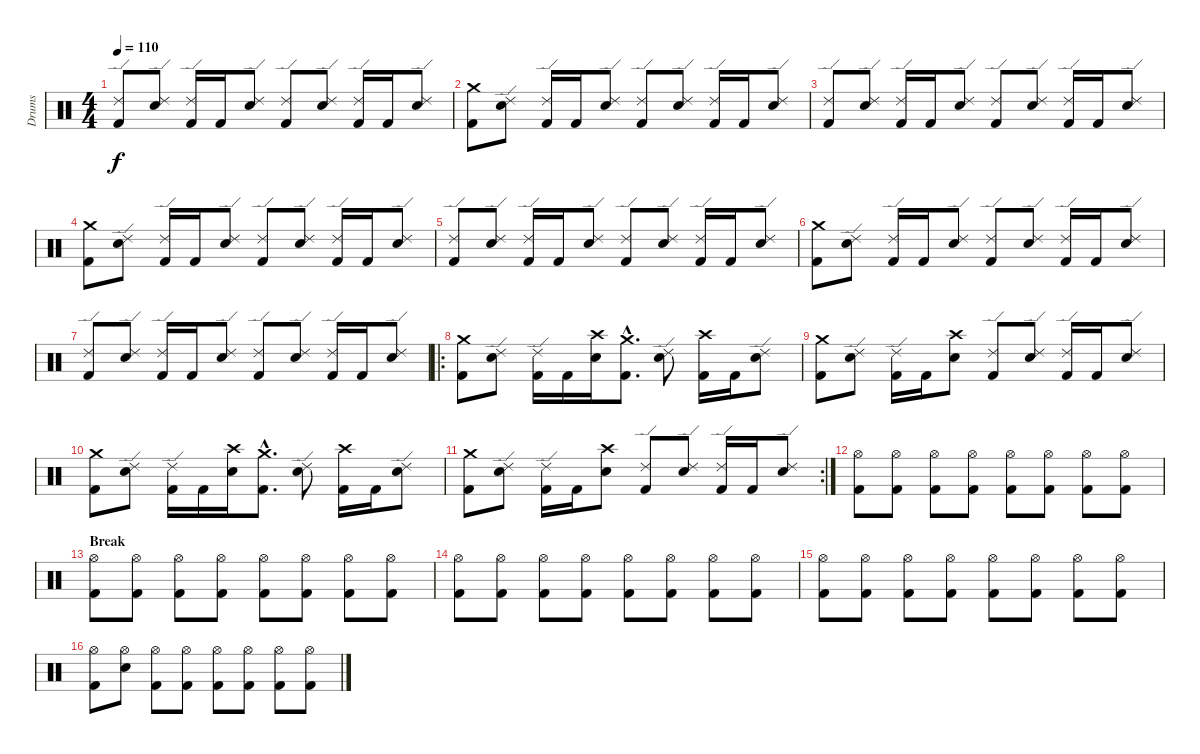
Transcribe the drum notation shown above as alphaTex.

\track ("Drums" "Drums") {instrument percussion}
\staff {score}
\articulation defaults
\ts (4 4)
\tempo 110
\clef neutral
\ks c
("Ride (edge) 2" "Kick (hit) 2").8{dy f} ("Ride (edge) 2" "Electric Snare (hit)").8 ("Ride (edge) 2" "Kick (hit) 2").16 "Kick (hit) 2".16 ("Ride (edge) 2" "Electric Snare (hit)").8 ("Ride (edge) 2" "Kick (hit) 2").8 ("Ride (edge) 2" "Electric Snare (hit)").8 ("Ride (edge) 2" "Kick (hit) 2").16 "Kick (hit) 2".16 ("Ride (edge) 2" "Electric Snare (hit)").8 |
("Crash medium (hit)" "Kick (hit) 2").8 ("Ride (edge) 2" "Electric Snare (hit)").8 ("Ride (edge) 2" "Kick (hit) 2").16 "Kick (hit) 2".16 ("Ride (edge) 2" "Electric Snare (hit)").8 ("Ride (edge) 2" "Kick (hit) 2").8 ("Ride (edge) 2" "Electric Snare (hit)").8 ("Ride (edge) 2" "Kick (hit) 2").16 "Kick (hit) 2".16 ("Ride (edge) 2" "Electric Snare (hit)").8 |
("Ride (edge) 2" "Kick (hit) 2").8 ("Ride (edge) 2" "Electric Snare (hit)").8 ("Ride (edge) 2" "Kick (hit) 2").16 "Kick (hit) 2".16 ("Ride (edge) 2" "Electric Snare (hit)").8 ("Ride (edge) 2" "Kick (hit) 2").8 ("Ride (edge) 2" "Electric Snare (hit)").8 ("Ride (edge) 2" "Kick (hit) 2").16 "Kick (hit) 2".16 ("Ride (edge) 2" "Electric Snare (hit)").8 |
("Crash medium (hit)" "Kick (hit) 2").8 ("Ride (edge) 2" "Electric Snare (hit)").8 ("Ride (edge) 2" "Kick (hit) 2").16 "Kick (hit) 2".16 ("Ride (edge) 2" "Electric Snare (hit)").8 ("Ride (edge) 2" "Kick (hit) 2").8 ("Ride (edge) 2" "Electric Snare (hit)").8 ("Ride (edge) 2" "Kick (hit) 2").16 "Kick (hit) 2".16 ("Ride (edge) 2" "Electric Snare (hit)").8 |
("Ride (edge) 2" "Kick (hit) 2").8 ("Ride (edge) 2" "Electric Snare (hit)").8 ("Ride (edge) 2" "Kick (hit) 2").16 "Kick (hit) 2".16 ("Ride (edge) 2" "Electric Snare (hit)").8 ("Ride (edge) 2" "Kick (hit) 2").8 ("Ride (edge) 2" "Electric Snare (hit)").8 ("Ride (edge) 2" "Kick (hit) 2").16 "Kick (hit) 2".16 ("Ride (edge) 2" "Electric Snare (hit)").8 |
("Crash medium (hit)" "Kick (hit) 2").8 ("Ride (edge) 2" "Electric Snare (hit)").8 ("Ride (edge) 2" "Kick (hit) 2").16 "Kick (hit) 2".16 ("Ride (edge) 2" "Electric Snare (hit)").8 ("Ride (edge) 2" "Kick (hit) 2").8 ("Ride (edge) 2" "Electric Snare (hit)").8 ("Ride (edge) 2" "Kick (hit) 2").16 "Kick (hit) 2".16 ("Ride (edge) 2" "Electric Snare (hit)").8 |
("Ride (edge) 2" "Kick (hit) 2").8 ("Ride (edge) 2" "Electric Snare (hit)").8 ("Ride (edge) 2" "Kick (hit) 2").16 "Kick (hit) 2".16 ("Ride (edge) 2" "Electric Snare (hit)").8 ("Ride (edge) 2" "Kick (hit) 2").8 ("Ride (edge) 2" "Electric Snare (hit)").8 ("Ride (edge) 2" "Kick (hit) 2").16 "Kick (hit) 2".16 ("Ride (edge) 2" "Electric Snare (hit)").8 |
\ro
("Crash medium (hit)" "Kick (hit) 2").8 ("Ride (edge) 2" "Electric Snare (hit)").8 ("Ride (edge) 2" "Kick (hit) 2").16 "Kick (hit) 2".16 ("Crash high (hit)" "Electric Snare (hit)").16 ("Crash medium (hit)"{hac} "Kick (hit) 2"{hac}).8{d} ("Ride (edge) 2" "Electric Snare (hit)").8 ("Crash high (hit)" "Kick (hit) 2").16 "Kick (hit) 2".16 ("Ride (edge) 2" "Electric Snare (hit)").8 |
("Crash medium (hit)" "Kick (hit) 2").8 ("Ride (edge) 2" "Electric Snare (hit)").8 ("Ride (edge) 2" "Kick (hit) 2").16 "Kick (hit) 2".16 ("Crash high (hit)" "Electric Snare (hit)").8 ("Ride (edge) 2" "Kick (hit) 2").8 ("Ride (edge) 2" "Electric Snare (hit)").8 ("Ride (edge) 2" "Kick (hit) 2").16 "Kick (hit) 2".16 ("Ride (edge) 2" "Electric Snare (hit)").8 |
("Crash medium (hit)" "Kick (hit) 2").8 ("Ride (edge) 2" "Electric Snare (hit)").8 ("Ride (edge) 2" "Kick (hit) 2").16 "Kick (hit) 2".16 ("Crash high (hit)" "Electric Snare (hit)").16 ("Crash medium (hit)"{hac} "Kick (hit) 2"{hac}).8{d} ("Ride (edge) 2" "Electric Snare (hit)").8 ("Crash high (hit)" "Kick (hit) 2").16 "Kick (hit) 2".16 ("Ride (edge) 2" "Electric Snare (hit)").8 |
\rc 2
("Crash medium (hit)" "Kick (hit) 2").8 ("Ride (edge) 2" "Electric Snare (hit)").8 ("Ride (edge) 2" "Kick (hit) 2").16 "Kick (hit) 2".16 ("Crash high (hit)" "Electric Snare (hit)").8 ("Ride (edge) 2" "Kick (hit) 2").8 ("Ride (edge) 2" "Electric Snare (hit)").8 ("Ride (edge) 2" "Kick (hit) 2").16 "Kick (hit) 2".16 ("Ride (edge) 2" "Electric Snare (hit)").8 |
("Hi-Hat (open)" "Kick (hit) 2").8 ("Hi-Hat (open)" "Kick (hit) 2").8 ("Hi-Hat (open)" "Kick (hit) 2").8 ("Hi-Hat (open)" "Kick (hit) 2").8 ("Hi-Hat (open)" "Kick (hit) 2").8 ("Hi-Hat (open)" "Kick (hit) 2").8 ("Hi-Hat (open)" "Kick (hit) 2").8 ("Hi-Hat (open)" "Kick (hit) 2").8 |
\section ("" "Break")
("Hi-Hat (open)" "Kick (hit) 2").8 ("Hi-Hat (open)" "Kick (hit) 2").8 ("Hi-Hat (open)" "Kick (hit) 2").8 ("Hi-Hat (open)" "Kick (hit) 2").8 ("Hi-Hat (open)" "Kick (hit) 2").8 ("Hi-Hat (open)" "Kick (hit) 2").8 ("Hi-Hat (open)" "Kick (hit) 2").8 ("Hi-Hat (open)" "Kick (hit) 2").8 |
("Hi-Hat (open)" "Kick (hit) 2").8 ("Hi-Hat (open)" "Kick (hit) 2").8 ("Hi-Hat (open)" "Kick (hit) 2").8 ("Hi-Hat (open)" "Kick (hit) 2").8 ("Hi-Hat (open)" "Kick (hit) 2").8 ("Hi-Hat (open)" "Kick (hit) 2").8 ("Hi-Hat (open)" "Kick (hit) 2").8 ("Hi-Hat (open)" "Kick (hit) 2").8 |
("Hi-Hat (open)" "Kick (hit) 2").8 ("Hi-Hat (open)" "Kick (hit) 2").8 ("Hi-Hat (open)" "Kick (hit) 2").8 ("Hi-Hat (open)" "Kick (hit) 2").8 ("Hi-Hat (open)" "Kick (hit) 2").8 ("Hi-Hat (open)" "Kick (hit) 2").8 ("Hi-Hat (open)" "Kick (hit) 2").8 ("Hi-Hat (open)" "Kick (hit) 2").8 |
("Hi-Hat (open)" "Kick (hit) 2").8 ("Hi-Hat (open)" "Electric Snare (hit)").8 ("Hi-Hat (open)" "Kick (hit) 2").8 ("Hi-Hat (open)" "Kick (hit) 2").8 ("Hi-Hat (open)" "Kick (hit) 2").8 ("Hi-Hat (open)" "Kick (hit) 2").8 ("Hi-Hat (open)" "Kick (hit) 2").8 ("Hi-Hat (open)" "Kick (hit) 2").8
